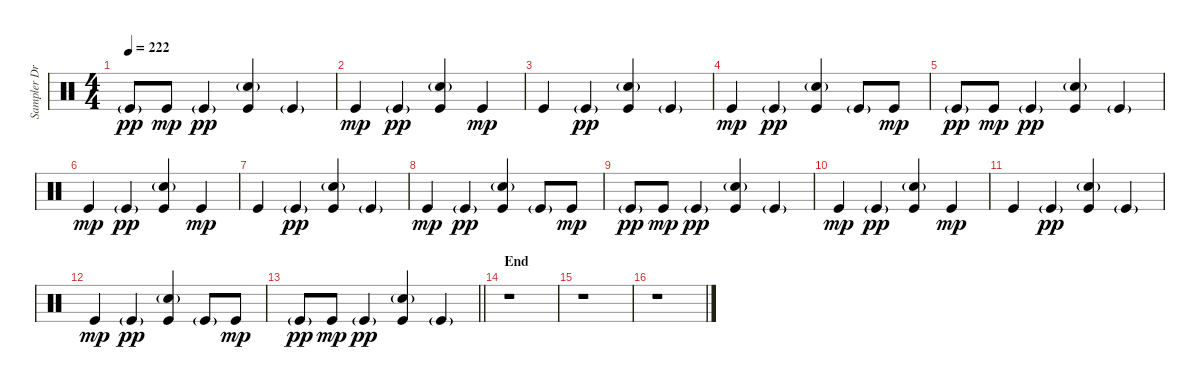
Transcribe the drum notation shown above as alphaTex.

\track ("Sampler Drums 1" "Sampler Dr") {instrument percussion}
\staff {score}
\articulation defaults
\ts (4 4)
\tempo 222
\clef neutral
\ks c "Kick (hit)"{g}.8{dy pp} "Kick (hit)".8{dy mp} "Kick (hit)"{g}.4{dy pp}
("Kick (hit)" "Snare (hit) 2"{g}).4 "Kick (hit)"{g}.4 |
"Kick (hit)".4{dy mp} "Kick (hit)"{g}.4{dy pp} ("Kick (hit)" "Snare (hit) 2"{g}).4 "Kick (hit)".4{dy mp} |
"Kick (hit)".4 "Kick (hit)"{g}.4{dy pp} ("Kick (hit)" "Snare (hit) 2"{g}).4 "Kick (hit)"{g}.4 |
"Kick (hit)".4{dy mp} "Kick (hit)"{g}.4{dy pp} ("Kick (hit)" "Snare (hit) 2"{g}).4 "Kick (hit)"{g}.8 "Kick (hit)".8{dy mp} |
"Kick (hit)"{g}.8{dy pp} "Kick (hit)".8{dy mp} "Kick (hit)"{g}.4{dy pp} ("Kick (hit)" "Snare (hit) 2"{g}).4 "Kick (hit)"{g}.4 |
"Kick (hit)".4{dy mp} "Kick (hit)"{g}.4{dy pp} ("Kick (hit)" "Snare (hit) 2"{g}).4 "Kick (hit)".4{dy mp} |
"Kick (hit)".4 "Kick (hit)"{g}.4{dy pp} ("Kick (hit)" "Snare (hit) 2"{g}).4 "Kick (hit)"{g}.4 |
"Kick (hit)".4{dy mp} "Kick (hit)"{g}.4{dy pp} ("Kick (hit)" "Snare (hit) 2"{g}).4 "Kick (hit)"{g}.8 "Kick (hit)".8{dy mp} |
"Kick (hit)"{g}.8{dy pp} "Kick (hit)".8{dy mp} "Kick (hit)"{g}.4{dy pp} ("Kick (hit)" "Snare (hit) 2"{g}).4 "Kick (hit)"{g}.4 |
"Kick (hit)".4{dy mp} "Kick (hit)"{g}.4{dy pp} ("Kick (hit)" "Snare (hit) 2"{g}).4 "Kick (hit)".4{dy mp} |
"Kick (hit)".4 "Kick (hit)"{g}.4{dy pp} ("Kick (hit)" "Snare (hit) 2"{g}).4 "Kick (hit)"{g}.4 |
"Kick (hit)".4{dy mp} "Kick (hit)"{g}.4{dy pp} ("Kick (hit)" "Snare (hit) 2"{g}).4 "Kick (hit)"{g}.8 "Kick (hit)".8{dy mp} |
\barLineRight lightlight "Kick (hit)"{g}.8{dy pp} "Kick (hit)".8{dy mp} "Kick (hit)"{g}.4{dy pp}
("Kick (hit)" "Snare (hit) 2"{g}).4 "Kick (hit)"{g}.4 |
\section ("" "End")
r.1 |
r.1 |
r.1
